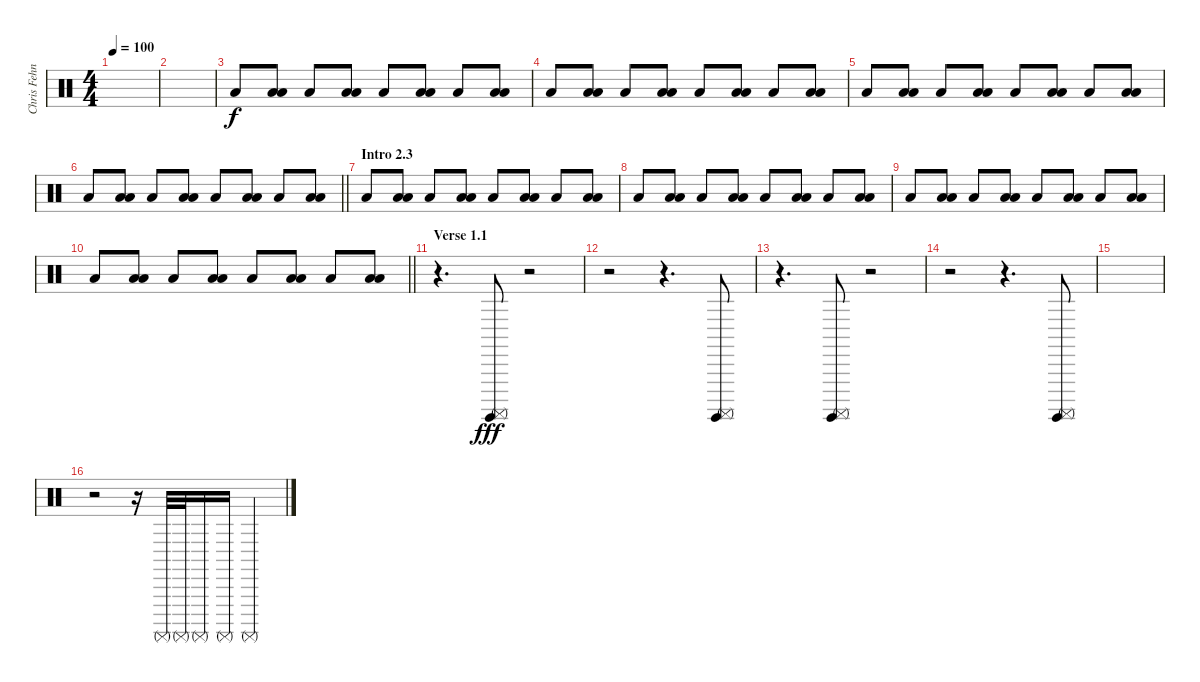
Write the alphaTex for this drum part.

\track ("Chris Fehn" "Chris Fehn") {instrument percussion}
\staff {score}
\articulation defaults
\ts (4 4)
\tempo 100
\clef neutral
\ks c
|
|
"Low Floor Tom (hit)".8 ("Low Floor Tom (hit)" "Low Floor Tom (hit)").8 "Low Floor Tom (hit)".8 ("Low Floor Tom (hit)" "Low Floor Tom (hit)").8 "Low Floor Tom (hit)".8 ("Low Floor Tom (hit)" "Low Floor Tom (hit)").8 "Low Floor Tom (hit)".8 ("Low Floor Tom (hit)" "Low Floor Tom (hit)").8 |
"Low Floor Tom (hit)".8 ("Low Floor Tom (hit)" "Low Floor Tom (hit)").8 "Low Floor Tom (hit)".8 ("Low Floor Tom (hit)" "Low Floor Tom (hit)").8 "Low Floor Tom (hit)".8 ("Low Floor Tom (hit)" "Low Floor Tom (hit)").8 "Low Floor Tom (hit)".8 ("Low Floor Tom (hit)" "Low Floor Tom (hit)").8 |
"Low Floor Tom (hit)".8 ("Low Floor Tom (hit)" "Low Floor Tom (hit)").8 "Low Floor Tom (hit)".8 ("Low Floor Tom (hit)" "Low Floor Tom (hit)").8 "Low Floor Tom (hit)".8 ("Low Floor Tom (hit)" "Low Floor Tom (hit)").8 "Low Floor Tom (hit)".8 ("Low Floor Tom (hit)" "Low Floor Tom (hit)").8 |
\barLineRight lightlight "Low Floor Tom (hit)".8
("Low Floor Tom (hit)" "Low Floor Tom (hit)").8 "Low Floor Tom (hit)".8 ("Low Floor Tom (hit)" "Low Floor Tom (hit)").8 "Low Floor Tom (hit)".8 ("Low Floor Tom (hit)" "Low Floor Tom (hit)").8 "Low Floor Tom (hit)".8 ("Low Floor Tom (hit)" "Low Floor Tom (hit)").8 |
\section ("" "Intro 2.3")
"Low Floor Tom (hit)".8 ("Low Floor Tom (hit)" "Low Floor Tom (hit)").8 "Low Floor Tom (hit)".8 ("Low Floor Tom (hit)" "Low Floor Tom (hit)").8 "Low Floor Tom (hit)".8 ("Low Floor Tom (hit)" "Low Floor Tom (hit)").8 "Low Floor Tom (hit)".8 ("Low Floor Tom (hit)" "Low Floor Tom (hit)").8 |
"Low Floor Tom (hit)".8 ("Low Floor Tom (hit)" "Low Floor Tom (hit)").8 "Low Floor Tom (hit)".8 ("Low Floor Tom (hit)" "Low Floor Tom (hit)").8 "Low Floor Tom (hit)".8 ("Low Floor Tom (hit)" "Low Floor Tom (hit)").8 "Low Floor Tom (hit)".8 ("Low Floor Tom (hit)" "Low Floor Tom (hit)").8 |
"Low Floor Tom (hit)".8 ("Low Floor Tom (hit)" "Low Floor Tom (hit)").8 "Low Floor Tom (hit)".8 ("Low Floor Tom (hit)" "Low Floor Tom (hit)").8 "Low Floor Tom (hit)".8 ("Low Floor Tom (hit)" "Low Floor Tom (hit)").8 "Low Floor Tom (hit)".8 ("Low Floor Tom (hit)" "Low Floor Tom (hit)").8 |
\barLineRight lightlight "Low Floor Tom (hit)".8
("Low Floor Tom (hit)" "Low Floor Tom (hit)").8 "Low Floor Tom (hit)".8 ("Low Floor Tom (hit)" "Low Floor Tom (hit)").8 "Low Floor Tom (hit)".8 ("Low Floor Tom (hit)" "Low Floor Tom (hit)").8 "Low Floor Tom (hit)".8 ("Low Floor Tom (hit)" "Low Floor Tom (hit)").8 |
\section ("" "Verse 1.1")
r.4{d} ("Surdo (hit)" "Surdo (mute)").8{dy fff} r.2 |
r.2 r.4{d} ("Surdo (hit)" "Surdo (mute)").8 |
r.4{d} ("Surdo (hit)" "Surdo (mute)").8 r.2 |
r.2 r.4{d} ("Surdo (hit)" "Surdo (mute)").8 |
|
r.2 r.16 "Surdo (mute)".32 "Surdo (mute)".32 "Surdo (mute)".16 "Surdo (mute)".16 "Surdo (mute)".4
